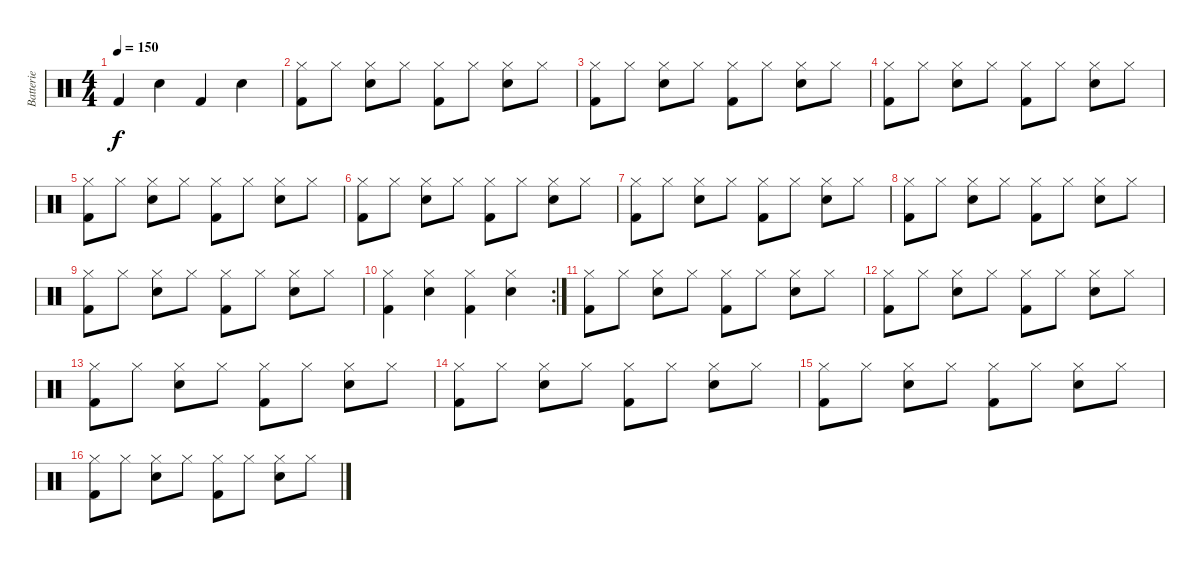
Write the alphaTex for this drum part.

\track ("Batterie" "Batterie") {instrument percussion}
\staff {score}
\articulation defaults
\ts (4 4)
\tempo 150
\clef neutral
\ks c "Kick (hit) 2".4{dy f} "Snare (hit) 2".4 "Kick (hit) 2".4 "Snare (hit) 2".4
|
("Hi-Hat (closed)" "Kick (hit) 2").8 "Hi-Hat (closed)".8 ("Hi-Hat (closed)" "Snare (hit) 2").8 "Hi-Hat (closed)".8 ("Hi-Hat (closed)" "Kick (hit) 2").8 "Hi-Hat (closed)".8 ("Hi-Hat (closed)" "Snare (hit) 2").8 "Hi-Hat (closed)".8 |
("Hi-Hat (closed)" "Kick (hit) 2").8 "Hi-Hat (closed)".8 ("Hi-Hat (closed)" "Snare (hit) 2").8 "Hi-Hat (closed)".8 ("Hi-Hat (closed)" "Kick (hit) 2").8 "Hi-Hat (closed)".8 ("Hi-Hat (closed)" "Snare (hit) 2").8 "Hi-Hat (closed)".8 |
("Hi-Hat (closed)" "Kick (hit) 2").8 "Hi-Hat (closed)".8 ("Hi-Hat (closed)" "Snare (hit) 2").8 "Hi-Hat (closed)".8 ("Hi-Hat (closed)" "Kick (hit) 2").8 "Hi-Hat (closed)".8 ("Hi-Hat (closed)" "Snare (hit) 2").8 "Hi-Hat (closed)".8 |
("Hi-Hat (closed)" "Kick (hit) 2").8 "Hi-Hat (closed)".8 ("Hi-Hat (closed)" "Snare (hit) 2").8 "Hi-Hat (closed)".8 ("Hi-Hat (closed)" "Kick (hit) 2").8 "Hi-Hat (closed)".8 ("Hi-Hat (closed)" "Snare (hit) 2").8 "Hi-Hat (closed)".8 |
("Hi-Hat (closed)" "Kick (hit) 2").8 "Hi-Hat (closed)".8 ("Hi-Hat (closed)" "Snare (hit) 2").8 "Hi-Hat (closed)".8 ("Hi-Hat (closed)" "Kick (hit) 2").8 "Hi-Hat (closed)".8 ("Hi-Hat (closed)" "Snare (hit) 2").8 "Hi-Hat (closed)".8 |
("Hi-Hat (closed)" "Kick (hit) 2").8 "Hi-Hat (closed)".8 ("Hi-Hat (closed)" "Snare (hit) 2").8 "Hi-Hat (closed)".8 ("Hi-Hat (closed)" "Kick (hit) 2").8 "Hi-Hat (closed)".8 ("Hi-Hat (closed)" "Snare (hit) 2").8 "Hi-Hat (closed)".8 |
("Hi-Hat (closed)" "Kick (hit) 2").8 "Hi-Hat (closed)".8 ("Hi-Hat (closed)" "Snare (hit) 2").8 "Hi-Hat (closed)".8 ("Hi-Hat (closed)" "Kick (hit) 2").8 "Hi-Hat (closed)".8 ("Hi-Hat (closed)" "Snare (hit) 2").8 "Hi-Hat (closed)".8 |
("Hi-Hat (closed)" "Kick (hit) 2").8 "Hi-Hat (closed)".8 ("Hi-Hat (closed)" "Snare (hit) 2").8 "Hi-Hat (closed)".8 ("Hi-Hat (closed)" "Kick (hit) 2").8 "Hi-Hat (closed)".8 ("Hi-Hat (closed)" "Snare (hit) 2").8 "Hi-Hat (closed)".8 |
\rc 2
("Hi-Hat (closed)" "Kick (hit) 2").4 ("Hi-Hat (closed)" "Snare (hit) 2").4 ("Hi-Hat (closed)" "Kick (hit) 2").4 ("Hi-Hat (closed)" "Snare (hit) 2").4 |
("Hi-Hat (closed)" "Kick (hit) 2").8 "Hi-Hat (closed)".8 ("Hi-Hat (closed)" "Snare (hit) 2").8 "Hi-Hat (closed)".8 ("Hi-Hat (closed)" "Kick (hit) 2").8 "Hi-Hat (closed)".8 ("Hi-Hat (closed)" "Snare (hit) 2").8 "Hi-Hat (closed)".8 |
("Hi-Hat (closed)" "Kick (hit) 2").8 "Hi-Hat (closed)".8 ("Hi-Hat (closed)" "Snare (hit) 2").8 "Hi-Hat (closed)".8 ("Hi-Hat (closed)" "Kick (hit) 2").8 "Hi-Hat (closed)".8 ("Hi-Hat (closed)" "Snare (hit) 2").8 "Hi-Hat (closed)".8 |
("Hi-Hat (closed)" "Kick (hit) 2").8 "Hi-Hat (closed)".8 ("Hi-Hat (closed)" "Snare (hit) 2").8 "Hi-Hat (closed)".8 ("Hi-Hat (closed)" "Kick (hit) 2").8 "Hi-Hat (closed)".8 ("Hi-Hat (closed)" "Snare (hit) 2").8 "Hi-Hat (closed)".8 |
("Hi-Hat (closed)" "Kick (hit) 2").8 "Hi-Hat (closed)".8 ("Hi-Hat (closed)" "Snare (hit) 2").8 "Hi-Hat (closed)".8 ("Hi-Hat (closed)" "Kick (hit) 2").8 "Hi-Hat (closed)".8 ("Hi-Hat (closed)" "Snare (hit) 2").8 "Hi-Hat (closed)".8 |
("Hi-Hat (closed)" "Kick (hit) 2").8 "Hi-Hat (closed)".8 ("Hi-Hat (closed)" "Snare (hit) 2").8 "Hi-Hat (closed)".8 ("Hi-Hat (closed)" "Kick (hit) 2").8 "Hi-Hat (closed)".8 ("Hi-Hat (closed)" "Snare (hit) 2").8 "Hi-Hat (closed)".8 |
("Hi-Hat (closed)" "Kick (hit) 2").8 "Hi-Hat (closed)".8 ("Hi-Hat (closed)" "Snare (hit) 2").8 "Hi-Hat (closed)".8 ("Hi-Hat (closed)" "Kick (hit) 2").8 "Hi-Hat (closed)".8 ("Hi-Hat (closed)" "Snare (hit) 2").8 "Hi-Hat (closed)".8
